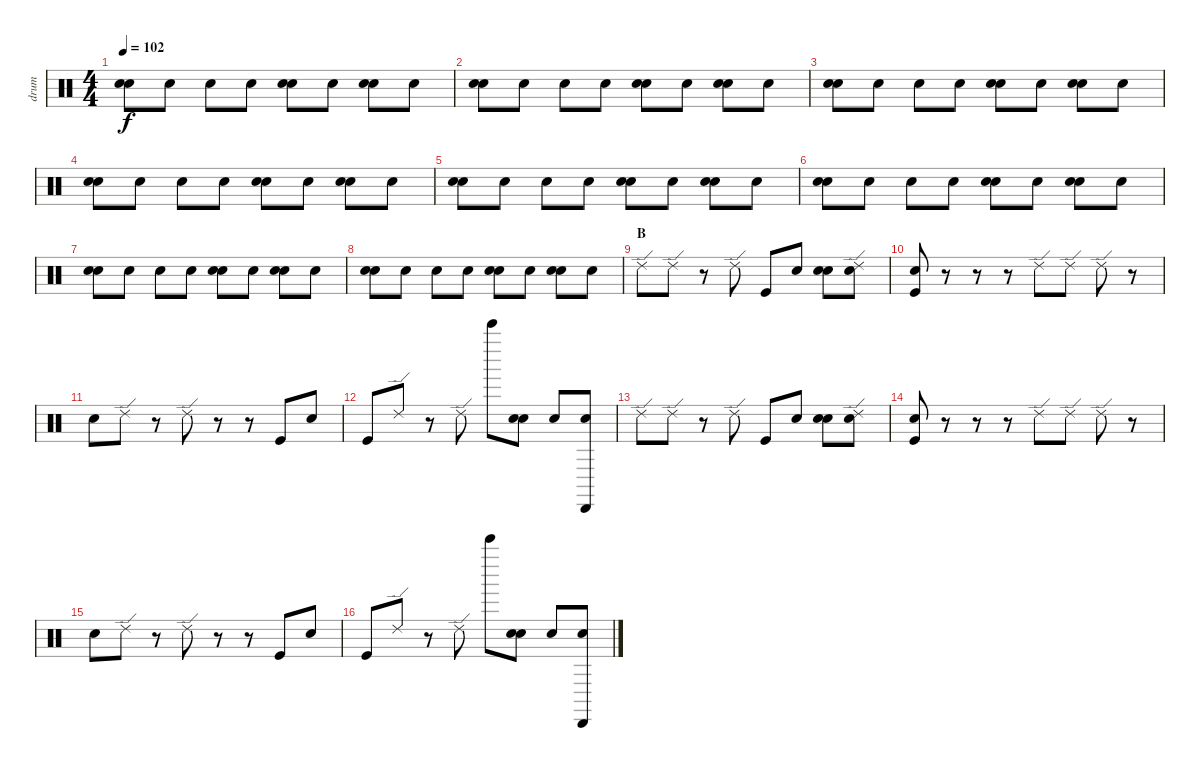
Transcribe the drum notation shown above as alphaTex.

\track ("drum" "drum") {instrument percussion}
\staff {score}
\articulation defaults
\ts (4 4)
\tempo 102
\clef neutral
\ks c
("Snare (hit) 2" "Electric Snare (hit)").8{dy f} "Electric Snare (hit)".8 "Electric Snare (hit)".8 "Electric Snare (hit)".8 ("Snare (hit) 2" "Electric Snare (hit)").8 "Electric Snare (hit)".8 ("Snare (hit) 2" "Electric Snare (hit)").8 "Electric Snare (hit)".8 |
("Snare (hit) 2" "Electric Snare (hit)").8 "Electric Snare (hit)".8 "Electric Snare (hit)".8 "Electric Snare (hit)".8 ("Snare (hit) 2" "Electric Snare (hit)").8 "Electric Snare (hit)".8 ("Snare (hit) 2" "Electric Snare (hit)").8 "Electric Snare (hit)".8 |
("Snare (hit) 2" "Electric Snare (hit)").8 "Electric Snare (hit)".8 "Electric Snare (hit)".8 "Electric Snare (hit)".8 ("Snare (hit) 2" "Electric Snare (hit)").8 "Electric Snare (hit)".8 ("Snare (hit) 2" "Electric Snare (hit)").8 "Electric Snare (hit)".8 |
("Snare (hit) 2" "Electric Snare (hit)").8 "Electric Snare (hit)".8 "Electric Snare (hit)".8 "Electric Snare (hit)".8 ("Snare (hit) 2" "Electric Snare (hit)").8 "Electric Snare (hit)".8 ("Snare (hit) 2" "Electric Snare (hit)").8 "Electric Snare (hit)".8 |
("Snare (hit) 2" "Electric Snare (hit)").8 "Electric Snare (hit)".8 "Electric Snare (hit)".8 "Electric Snare (hit)".8 ("Snare (hit) 2" "Electric Snare (hit)").8 "Electric Snare (hit)".8 ("Snare (hit) 2" "Electric Snare (hit)").8 "Electric Snare (hit)".8 |
("Snare (hit) 2" "Electric Snare (hit)").8 "Electric Snare (hit)".8 "Electric Snare (hit)".8 "Electric Snare (hit)".8 ("Snare (hit) 2" "Electric Snare (hit)").8 "Electric Snare (hit)".8 ("Snare (hit) 2" "Electric Snare (hit)").8 "Electric Snare (hit)".8 |
("Snare (hit) 2" "Electric Snare (hit)").8 "Electric Snare (hit)".8 "Electric Snare (hit)".8 "Electric Snare (hit)".8 ("Snare (hit) 2" "Electric Snare (hit)").8 "Electric Snare (hit)".8 ("Snare (hit) 2" "Electric Snare (hit)").8 "Electric Snare (hit)".8 |
("Snare (hit) 2" "Electric Snare (hit)").8 "Electric Snare (hit)".8 "Electric Snare (hit)".8 "Electric Snare (hit)".8 ("Snare (hit) 2" "Electric Snare (hit)").8 "Electric Snare (hit)".8 ("Snare (hit) 2" "Electric Snare (hit)").8 "Electric Snare (hit)".8 |
\section ("" "B")
"Ride (edge) 2".8 "Ride (edge) 2".8 r.8 "Ride (edge) 2".8 "Kick (hit)".8 "Snare (hit) 2".8 ("Snare (hit) 2" "Electric Snare (hit)").8 ("Snare (hit) 2" "Ride (edge) 2").8 |
("Electric Snare (hit)" "Kick (hit)").8 r.8 r.8 r.8 "Ride (edge) 2".8 "Ride (edge) 2".8 "Ride (edge) 2".8 r.8 |
"Snare (hit) 2".8 "Ride (edge) 2".8 r.8 "Ride (edge) 2".8 r.8 r.8 "Kick (hit)".8 "Snare (hit) 2".8 |
"Kick (hit)".8 "Ride (edge) 2".8 r.8 "Ride (edge) 2".8 "Bell Tree (hit)".8 ("Snare (hit) 2" "Electric Snare (hit)").8 "Snare (hit) 2".8 ("Electric Snare (hit)" "Cabasa (hit)").8 |
"Ride (edge) 2".8 "Ride (edge) 2".8 r.8 "Ride (edge) 2".8 "Kick (hit)".8 "Snare (hit) 2".8 ("Snare (hit) 2" "Electric Snare (hit)").8 ("Snare (hit) 2" "Ride (edge) 2").8 |
("Electric Snare (hit)" "Kick (hit)").8 r.8 r.8 r.8 "Ride (edge) 2".8 "Ride (edge) 2".8 "Ride (edge) 2".8 r.8 |
"Snare (hit) 2".8 "Ride (edge) 2".8 r.8 "Ride (edge) 2".8 r.8 r.8 "Kick (hit)".8 "Snare (hit) 2".8 |
"Kick (hit)".8 "Ride (edge) 2".8 r.8 "Ride (edge) 2".8 "Bell Tree (hit)".8 ("Snare (hit) 2" "Electric Snare (hit)").8 "Snare (hit) 2".8 ("Electric Snare (hit)" "Cabasa (hit)").8
